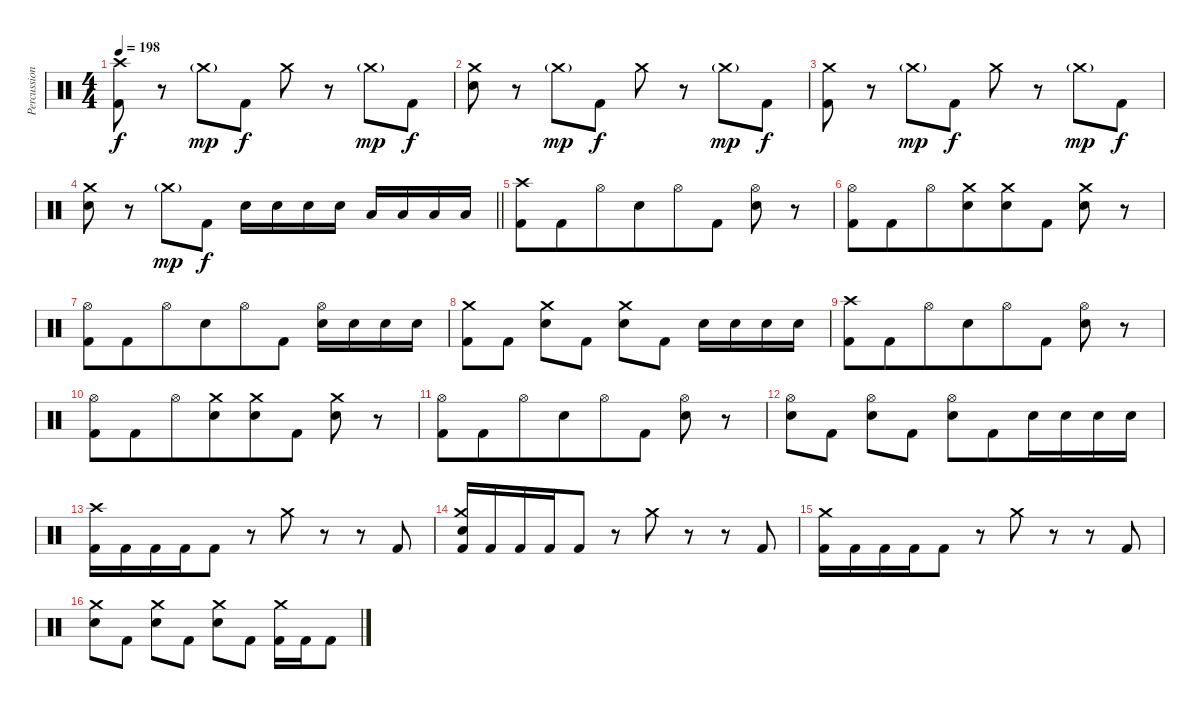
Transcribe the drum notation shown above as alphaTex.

\track ("Percussion" "Percussion") {instrument percussion}
\staff {score}
\articulation defaults
\ts (4 4)
\tempo 198
\clef neutral
\ks c
("Crash high (hit)" "Kick (hit) 2").8{dy f} r.8 "Crash medium (hit)"{g}.8{dy mp} "Kick (hit) 2".8{dy f} "Crash medium (hit)".8 r.8{beam merge} "Crash medium (hit)"{g}.8{dy mp} "Kick (hit) 2".8{dy f} |
("Crash medium (hit)" "Electric Snare (hit)").8 r.8 "Crash medium (hit)"{g}.8{dy mp} "Kick (hit) 2".8{dy f} "Crash medium (hit)".8 r.8{beam merge} "Crash medium (hit)"{g}.8{dy mp} "Kick (hit) 2".8{dy f} |
("Crash medium (hit)" "Kick (hit) 2").8 r.8 "Crash medium (hit)"{g}.8{dy mp} "Kick (hit) 2".8{dy f} "Crash medium (hit)".8 r.8{beam merge} "Crash medium (hit)"{g}.8{dy mp} "Kick (hit) 2".8{dy f} |
\barLineRight lightlight
("Crash medium (hit)" "Electric Snare (hit)").8 r.8 "Crash medium (hit)"{g}.8{dy mp} "Kick (hit) 2".8{dy f} "Electric Snare (hit)".16 "Electric Snare (hit)".16{beam merge} "Electric Snare (hit)".16 "Electric Snare (hit)".16 "Low Tom (hit)".16 "Low Tom (hit)".16{beam merge} "Low Tom (hit)".16{beam merge} "Low Tom (hit)".16 |
\section ("" "")
("Crash high (hit)" "Kick (hit) 2").8{beam merge} "Kick (hit) 2".8{beam merge} "Hi-Hat (open)".8 "Electric Snare (hit)".8{beam merge} "Hi-Hat (open)".8{beam merge} "Kick (hit) 2".8 ("Hi-Hat (open)" "Electric Snare (hit)").8 r.8 |
("Hi-Hat (open)" "Kick (hit) 2").8{beam merge} "Kick (hit) 2".8{beam merge} "Hi-Hat (open)".8 ("Crash medium (hit)" "Electric Snare (hit)").8{beam merge} ("Crash medium (hit)" "Electric Snare (hit)").8{beam merge} "Kick (hit) 2".8 ("Crash medium (hit)" "Electric Snare (hit)").8 r.8 |
("Hi-Hat (open)" "Kick (hit) 2").8{beam merge} "Kick (hit) 2".8{beam merge} "Hi-Hat (open)".8 "Electric Snare (hit)".8{beam merge} "Hi-Hat (open)".8{beam merge} "Kick (hit) 2".8 ("Hi-Hat (open)" "Electric Snare (hit)").16 "Electric Snare (hit)".16{beam merge} "Electric Snare (hit)".16 "Electric Snare (hit)".16 |
("Crash medium (hit)" "Kick (hit) 2").8{beam merge} "Kick (hit) 2".8 ("Crash medium (hit)" "Electric Snare (hit)").8 "Kick (hit) 2".8 ("Crash medium (hit)" "Electric Snare (hit)").8{beam merge} "Kick (hit) 2".8 "Electric Snare (hit)".16 "Electric Snare (hit)".16{beam merge} "Electric Snare (hit)".16 "Electric Snare (hit)".16 |
("Crash high (hit)" "Kick (hit) 2").8{beam merge} "Kick (hit) 2".8{beam merge} "Hi-Hat (open)".8 "Electric Snare (hit)".8{beam merge} "Hi-Hat (open)".8{beam merge} "Kick (hit) 2".8 ("Hi-Hat (open)" "Electric Snare (hit)").8 r.8 |
("Hi-Hat (open)" "Kick (hit) 2").8{beam merge} "Kick (hit) 2".8{beam merge} "Hi-Hat (open)".8 ("Crash medium (hit)" "Electric Snare (hit)").8{beam merge} ("Crash medium (hit)" "Electric Snare (hit)").8{beam merge} "Kick (hit) 2".8 ("Crash medium (hit)" "Electric Snare (hit)").8 r.8 |
("Hi-Hat (open)" "Kick (hit) 2").8{beam merge} "Kick (hit) 2".8{beam merge} "Hi-Hat (open)".8 "Electric Snare (hit)".8{beam merge} "Hi-Hat (open)".8{beam merge} "Kick (hit) 2".8 ("Hi-Hat (open)" "Electric Snare (hit)").8 r.8 |
("Hi-Hat (open)" "Electric Snare (hit)").8{beam merge} "Kick (hit) 2".8 ("Hi-Hat (open)" "Electric Snare (hit)").8 "Kick (hit) 2".8 ("Hi-Hat (open)" "Electric Snare (hit)").8 "Kick (hit) 2".8{beam merge} "Electric Snare (hit)".16 "Electric Snare (hit)".16{beam merge} "Electric Snare (hit)".16 "Electric Snare (hit)".16 |
("Crash high (hit)" "Kick (hit) 2").16{beam merge} "Kick (hit) 2".16{beam merge} "Kick (hit) 2".16 "Kick (hit) 2".16{beam merge} "Kick (hit) 2".8 r.8{beam merge} "Crash medium (hit)".8 r.8 r.8 "Kick (hit) 2".8 |
("Crash medium (hit)" "Electric Snare (hit)" "Kick (hit) 2").16{beam merge} "Kick (hit) 2".16{beam merge} "Kick (hit) 2".16 "Kick (hit) 2".16{beam merge} "Kick (hit) 2".8 r.8{beam merge} "Crash medium (hit)".8 r.8 r.8 "Kick (hit) 2".8 |
("Crash medium (hit)" "Kick (hit) 2").16{beam merge} "Kick (hit) 2".16{beam merge} "Kick (hit) 2".16 "Kick (hit) 2".16{beam merge} "Kick (hit) 2".8 r.8{beam merge} "Crash medium (hit)".8 r.8 r.8 "Kick (hit) 2".8 |
("Crash medium (hit)" "Electric Snare (hit)").8{beam merge} "Kick (hit) 2".8 ("Crash medium (hit)" "Electric Snare (hit)").8 "Kick (hit) 2".8 ("Crash medium (hit)" "Electric Snare (hit)").8 "Kick (hit) 2".8 ("Crash medium (hit)" "Kick (hit) 2").16 "Kick (hit) 2".16{beam merge} "Kick (hit) 2".8
